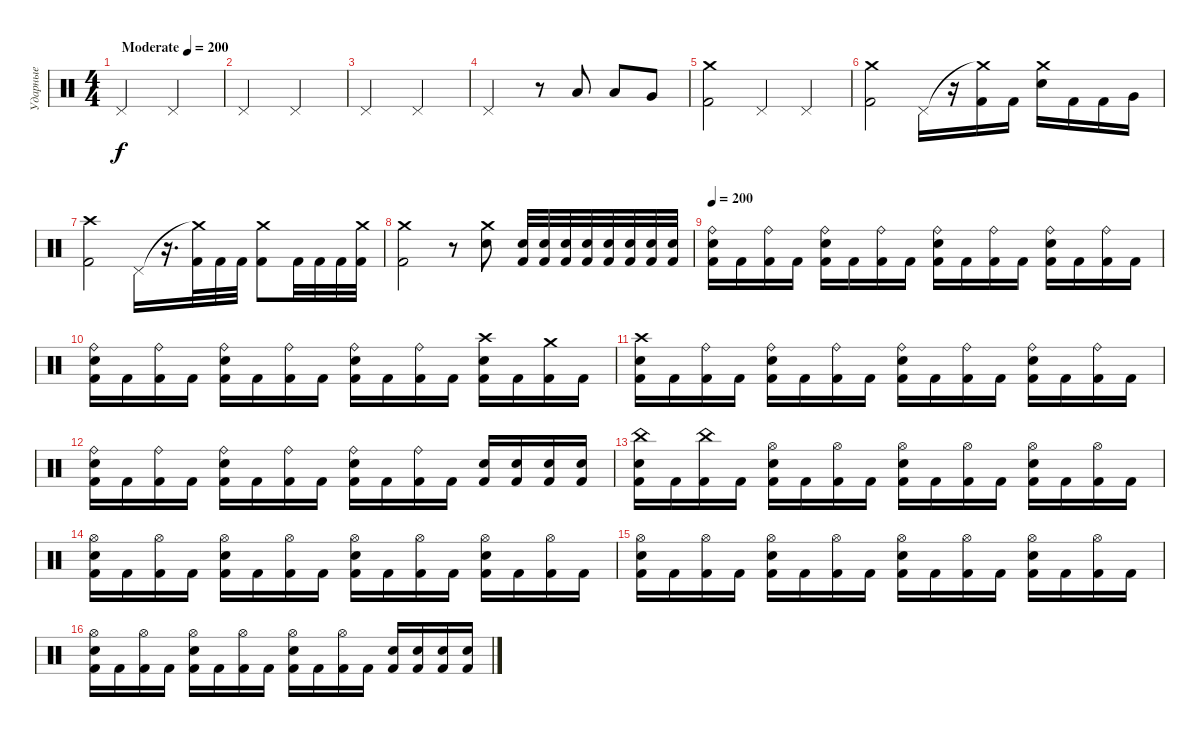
\track ("Ударные" "Ударные") {instrument percussion}
\staff {score}
\articulation defaults
\ts (4 4)
\tempo (200 "Moderate")
\tempo 100
\tempo (200 "Moderate")
\clef neutral
\ks c "Pedal Hi-Hat (hit)".2{dy f} "Pedal Hi-Hat (hit)".2
|
"Pedal Hi-Hat (hit)".2 "Pedal Hi-Hat (hit)".2 |
"Pedal Hi-Hat (hit)".2 "Pedal Hi-Hat (hit)".2 |
"Pedal Hi-Hat (hit)".2 r.8 "Low Tom (hit)".8 "Low Tom (hit)".8 "Very Low Tom (hit)".8 |
("Crash medium (hit)" "Kick (hit) 2").2 "Pedal Hi-Hat (hit)".4 "Pedal Hi-Hat (hit)".4 |
("Crash medium (hit)" "Kick (hit) 2").2 "Pedal Hi-Hat (hit)".16 r.16 ("Crash medium (hit)"{t} "Kick (hit) 2").16 "Kick (hit) 2".16 ("Crash medium (hit)" "Snare (hit) 2").16 "Kick (hit) 2".16 "Kick (hit) 2".16 "Very Low Tom (hit)".16 |
("Crash high (hit)" "Kick (hit) 2").2 "Pedal Hi-Hat (hit)".16 r.16{d} ("Crash medium (hit)"{t} "Kick (hit) 2").32 "Kick (hit) 2".32 "Kick (hit) 2".32 ("Crash medium (hit)" "Kick (hit) 2").8 "Kick (hit) 2".32 "Kick (hit) 2".32 "Kick (hit) 2".32 ("Crash medium (hit)" "Kick (hit) 2").32 |
("Crash medium (hit)" "Kick (hit) 2").2 r.8 ("Crash medium (hit)" "Snare (hit) 2").8 ("Snare (hit) 2" "Kick (hit) 2").32 ("Snare (hit) 2" "Kick (hit) 2").32 ("Snare (hit) 2" "Kick (hit) 2").32 ("Snare (hit) 2" "Kick (hit) 2").32 ("Snare (hit) 2" "Kick (hit) 2").32 ("Snare (hit) 2" "Kick (hit) 2").32 ("Snare (hit) 2" "Kick (hit) 2").32 ("Snare (hit) 2" "Kick (hit) 2").32 |
\tempo 200
("Ride (bell)" "Snare (hit) 2" "Kick (hit) 2").16 "Kick (hit) 2".16 ("Ride (bell)" "Kick (hit) 2").16 "Kick (hit) 2".16 ("Ride (bell)" "Snare (hit) 2" "Kick (hit) 2").16 "Kick (hit) 2".16 ("Ride (bell)" "Kick (hit) 2").16 "Kick (hit) 2".16 ("Ride (bell)" "Snare (hit) 2" "Kick (hit) 2").16 "Kick (hit) 2".16 ("Ride (bell)" "Kick (hit) 2").16 "Kick (hit) 2".16 ("Ride (bell)" "Snare (hit) 2" "Kick (hit) 2").16 "Kick (hit) 2".16 ("Ride (bell)" "Kick (hit) 2").16 "Kick (hit) 2".16 |
("Ride (bell)" "Snare (hit) 2" "Kick (hit) 2").16 "Kick (hit) 2".16 ("Ride (bell)" "Kick (hit) 2").16 "Kick (hit) 2".16 ("Ride (bell)" "Snare (hit) 2" "Kick (hit) 2").16 "Kick (hit) 2".16 ("Ride (bell)" "Kick (hit) 2").16 "Kick (hit) 2".16 ("Ride (bell)" "Snare (hit) 2" "Kick (hit) 2").16 "Kick (hit) 2".16 ("Ride (bell)" "Kick (hit) 2").16 "Kick (hit) 2".16 ("Crash high (hit)" "Snare (hit) 2" "Kick (hit) 2").16 "Kick (hit) 2".16 ("Crash medium (hit)" "Kick (hit) 2").16 "Kick (hit) 2".16 |
("Crash high (hit)" "Snare (hit) 2" "Kick (hit) 2").16 "Kick (hit) 2".16 ("Ride (bell)" "Kick (hit) 2").16 "Kick (hit) 2".16 ("Ride (bell)" "Snare (hit) 2" "Kick (hit) 2").16 "Kick (hit) 2".16 ("Ride (bell)" "Kick (hit) 2").16 "Kick (hit) 2".16 ("Ride (bell)" "Snare (hit) 2" "Kick (hit) 2").16 "Kick (hit) 2".16 ("Ride (bell)" "Kick (hit) 2").16 "Kick (hit) 2".16 ("Ride (bell)" "Snare (hit) 2" "Kick (hit) 2").16 "Kick (hit) 2".16 ("Ride (bell)" "Kick (hit) 2").16 "Kick (hit) 2".16 |
("Ride (bell)" "Snare (hit) 2" "Kick (hit) 2").16 "Kick (hit) 2".16 ("Ride (bell)" "Kick (hit) 2").16 "Kick (hit) 2".16 ("Ride (bell)" "Snare (hit) 2" "Kick (hit) 2").16 "Kick (hit) 2".16 ("Ride (bell)" "Kick (hit) 2").16 "Kick (hit) 2".16 ("Ride (bell)" "Snare (hit) 2" "Kick (hit) 2").16 "Kick (hit) 2".16 ("Ride (bell)" "Kick (hit) 2").16 "Kick (hit) 2".16 ("Snare (hit) 2" "Kick (hit) 2").16 ("Snare (hit) 2" "Kick (hit) 2").16 ("Snare (hit) 2" "Kick (hit) 2").16 ("Snare (hit) 2" "Kick (hit) 2").16 |
("China (hit)" "Snare (hit) 2" "Kick (hit) 2").16 "Kick (hit) 2".16 ("China (hit)" "Kick (hit) 2").16 "Kick (hit) 2".16 ("Hi-Hat (open)" "Snare (hit) 2" "Kick (hit) 2").16 "Kick (hit) 2".16 ("Hi-Hat (open)" "Kick (hit) 2").16 "Kick (hit) 2".16 ("Hi-Hat (open)" "Snare (hit) 2" "Kick (hit) 2").16 "Kick (hit) 2".16 ("Hi-Hat (open)" "Kick (hit) 2").16 "Kick (hit) 2".16 ("Hi-Hat (open)" "Snare (hit) 2" "Kick (hit) 2").16 "Kick (hit) 2".16 ("Hi-Hat (open)" "Kick (hit) 2").16 "Kick (hit) 2".16 |
("Hi-Hat (open)" "Snare (hit) 2" "Kick (hit) 2").16 "Kick (hit) 2".16 ("Hi-Hat (open)" "Kick (hit) 2").16 "Kick (hit) 2".16 ("Hi-Hat (open)" "Snare (hit) 2" "Kick (hit) 2").16 "Kick (hit) 2".16 ("Hi-Hat (open)" "Kick (hit) 2").16 "Kick (hit) 2".16 ("Hi-Hat (open)" "Snare (hit) 2" "Kick (hit) 2").16 "Kick (hit) 2".16 ("Hi-Hat (open)" "Kick (hit) 2").16 "Kick (hit) 2".16 ("Hi-Hat (open)" "Snare (hit) 2" "Kick (hit) 2").16 "Kick (hit) 2".16 ("Hi-Hat (open)" "Kick (hit) 2").16 "Kick (hit) 2".16 |
("Hi-Hat (open)" "Snare (hit) 2" "Kick (hit) 2").16 "Kick (hit) 2".16 ("Hi-Hat (open)" "Kick (hit) 2").16 "Kick (hit) 2".16 ("Hi-Hat (open)" "Snare (hit) 2" "Kick (hit) 2").16 "Kick (hit) 2".16 ("Hi-Hat (open)" "Kick (hit) 2").16 "Kick (hit) 2".16 ("Hi-Hat (open)" "Snare (hit) 2" "Kick (hit) 2").16 "Kick (hit) 2".16 ("Hi-Hat (open)" "Kick (hit) 2").16 "Kick (hit) 2".16 ("Hi-Hat (open)" "Snare (hit) 2" "Kick (hit) 2").16 "Kick (hit) 2".16 ("Hi-Hat (open)" "Kick (hit) 2").16 "Kick (hit) 2".16 |
("Hi-Hat (open)" "Snare (hit) 2" "Kick (hit) 2").16 "Kick (hit) 2".16 ("Hi-Hat (open)" "Kick (hit) 2").16 "Kick (hit) 2".16 ("Hi-Hat (open)" "Snare (hit) 2" "Kick (hit) 2").16 "Kick (hit) 2".16 ("Hi-Hat (open)" "Kick (hit) 2").16 "Kick (hit) 2".16 ("Hi-Hat (open)" "Snare (hit) 2" "Kick (hit) 2").16 "Kick (hit) 2".16 ("Hi-Hat (open)" "Kick (hit) 2").16 "Kick (hit) 2".16 ("Snare (hit) 2" "Kick (hit) 2").16 ("Snare (hit) 2" "Kick (hit) 2").16 ("Snare (hit) 2" "Kick (hit) 2").16 ("Snare (hit) 2" "Kick (hit) 2").16
